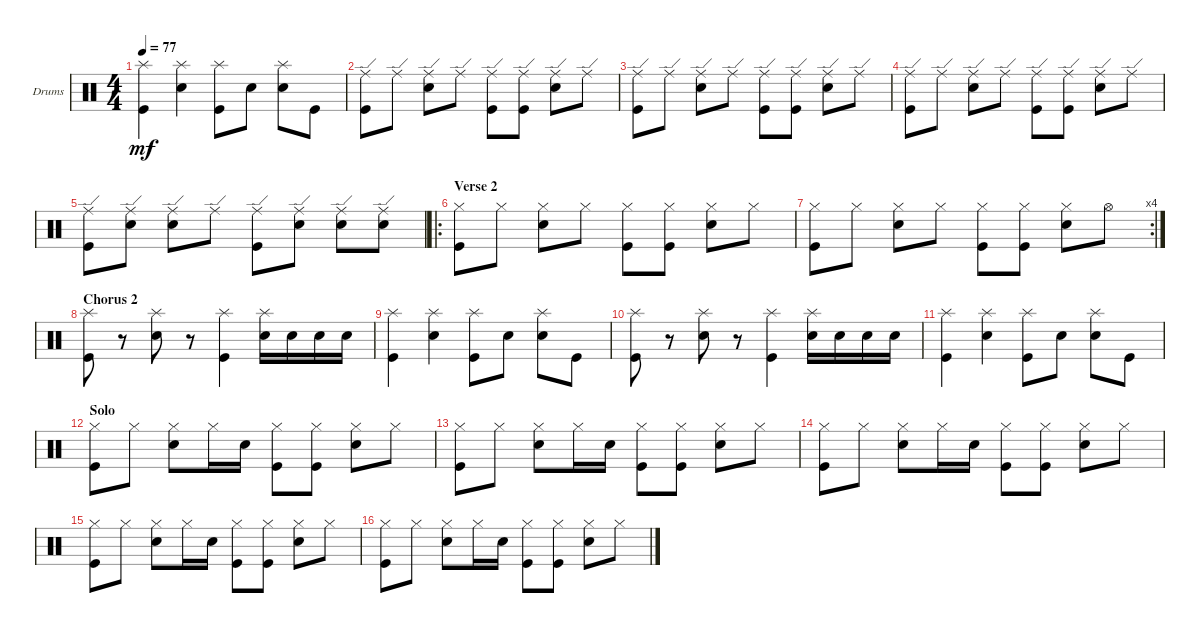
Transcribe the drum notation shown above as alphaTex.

\defaultSystemsLayout 4
\bracketExtendMode groupsimilarinstruments
\firstSystemTrackNameOrientation horizontal
\otherSystemsTrackNameOrientation horizontal
\track ("Drumkit" "Drums") {instrument percussion}
\staff {score}
\articulation defaults
\ts (4 4)
\tempo 77
\clef neutral
\ks c
("Kick (hit)" "Splash (hit)").4{dy mf} ("Snare (hit) 2" "Splash (hit)").4 ("Kick (hit)" "Splash (hit)").8 "Snare (hit) 2".8 ("Snare (hit) 2" "Splash (hit)").8 "Kick (hit)".8 |
("Ride (edge)" "Kick (hit)").8 "Ride (edge)".8 ("Snare (hit) 2" "Ride (edge)").8 "Ride (edge)".8 ("Kick (hit)" "Ride (edge)").8 ("Kick (hit)" "Ride (edge)").8 ("Snare (hit) 2" "Ride (edge)").8 "Ride (edge)".8 |
("Ride (edge)" "Kick (hit)").8 "Ride (edge)".8 ("Snare (hit) 2" "Ride (edge)").8 "Ride (edge)".8 ("Kick (hit)" "Ride (edge)").8 ("Kick (hit)" "Ride (edge)").8 ("Snare (hit) 2" "Ride (edge)").8 "Ride (edge)".8 |
("Ride (edge)" "Kick (hit)").8 "Ride (edge)".8 ("Snare (hit) 2" "Ride (edge)").8 "Ride (edge)".8 ("Kick (hit)" "Ride (edge)").8 ("Kick (hit)" "Ride (edge)").8 ("Snare (hit) 2" "Ride (edge)").8 "Ride (edge)".8 |
("Ride (edge)" "Kick (hit)").8 ("Ride (edge)" "Snare (hit) 2").8 ("Snare (hit) 2" "Ride (edge)").8 "Ride (edge)".8 ("Kick (hit)" "Ride (edge)").8 ("Ride (edge)" "Snare (hit) 2").8 ("Snare (hit) 2" "Ride (edge)").8 ("Ride (edge)" "Snare (hit) 2").8 |
\ro
\section ("" "Verse 2")
("Kick (hit)" "Hi-Hat (closed)").8 "Hi-Hat (closed)".8 ("Snare (hit) 2" "Hi-Hat (closed)").8 "Hi-Hat (closed)".8 ("Kick (hit)" "Hi-Hat (closed)").8 ("Kick (hit)" "Hi-Hat (closed)").8 ("Snare (hit) 2" "Hi-Hat (closed)").8 "Hi-Hat (closed)".8 |
\rc 4
("Kick (hit)" "Hi-Hat (closed)").8 "Hi-Hat (closed)".8 ("Snare (hit) 2" "Hi-Hat (closed)").8 "Hi-Hat (closed)".8 ("Kick (hit)" "Hi-Hat (closed)").8 ("Kick (hit)" "Hi-Hat (closed)").8 ("Snare (hit) 2" "Hi-Hat (closed)").8 "Hi-Hat (open)".8 |
\section ("" "Chorus 2")
("Kick (hit)" "Splash (hit)").8 r.8 ("Splash (hit)" "Snare (hit) 2").8 r.8 ("Splash (hit)" "Kick (hit)").4 ("Splash (hit)" "Snare (hit) 2").16 "Snare (hit) 2".16 "Snare (hit) 2".16 "Snare (hit) 2".16 |
("Kick (hit)" "Splash (hit)").4 ("Snare (hit) 2" "Splash (hit)").4 ("Kick (hit)" "Splash (hit)").8 "Snare (hit) 2".8 ("Snare (hit) 2" "Splash (hit)").8 "Kick (hit)".8 |
("Kick (hit)" "Splash (hit)").8 r.8 ("Splash (hit)" "Snare (hit) 2").8 r.8 ("Splash (hit)" "Kick (hit)").4 ("Splash (hit)" "Snare (hit) 2").16 "Snare (hit) 2".16 "Snare (hit) 2".16 "Snare (hit) 2".16 |
("Kick (hit)" "Splash (hit)").4 ("Snare (hit) 2" "Splash (hit)").4 ("Kick (hit)" "Splash (hit)").8 "Snare (hit) 2".8 ("Snare (hit) 2" "Splash (hit)").8 "Kick (hit)".8 |
\section ("" "Solo")
("Kick (hit)" "Hi-Hat (closed)").8 "Hi-Hat (closed)".8 ("Snare (hit) 2" "Hi-Hat (closed)").8 "Hi-Hat (closed)".16 "Snare (hit) 2".16 ("Kick (hit)" "Hi-Hat (closed)").8 ("Kick (hit)" "Hi-Hat (closed)").8 ("Snare (hit) 2" "Hi-Hat (closed)").8 "Hi-Hat (closed)".8 |
("Kick (hit)" "Hi-Hat (closed)").8 "Hi-Hat (closed)".8 ("Snare (hit) 2" "Hi-Hat (closed)").8 "Hi-Hat (closed)".16 "Snare (hit) 2".16 ("Kick (hit)" "Hi-Hat (closed)").8 ("Kick (hit)" "Hi-Hat (closed)").8 ("Snare (hit) 2" "Hi-Hat (closed)").8 "Hi-Hat (closed)".8 |
("Kick (hit)" "Hi-Hat (closed)").8 "Hi-Hat (closed)".8 ("Snare (hit) 2" "Hi-Hat (closed)").8 "Hi-Hat (closed)".16 "Snare (hit) 2".16 ("Kick (hit)" "Hi-Hat (closed)").8 ("Kick (hit)" "Hi-Hat (closed)").8 ("Snare (hit) 2" "Hi-Hat (closed)").8 "Hi-Hat (closed)".8 |
("Kick (hit)" "Hi-Hat (closed)").8 "Hi-Hat (closed)".8 ("Snare (hit) 2" "Hi-Hat (closed)").8 "Hi-Hat (closed)".16 "Snare (hit) 2".16 ("Kick (hit)" "Hi-Hat (closed)").8 ("Kick (hit)" "Hi-Hat (closed)").8 ("Snare (hit) 2" "Hi-Hat (closed)").8 "Hi-Hat (closed)".8 |
("Kick (hit)" "Hi-Hat (closed)").8 "Hi-Hat (closed)".8 ("Snare (hit) 2" "Hi-Hat (closed)").8 "Hi-Hat (closed)".16 "Snare (hit) 2".16 ("Kick (hit)" "Hi-Hat (closed)").8 ("Kick (hit)" "Hi-Hat (closed)").8 ("Snare (hit) 2" "Hi-Hat (closed)").8 "Hi-Hat (closed)".8
